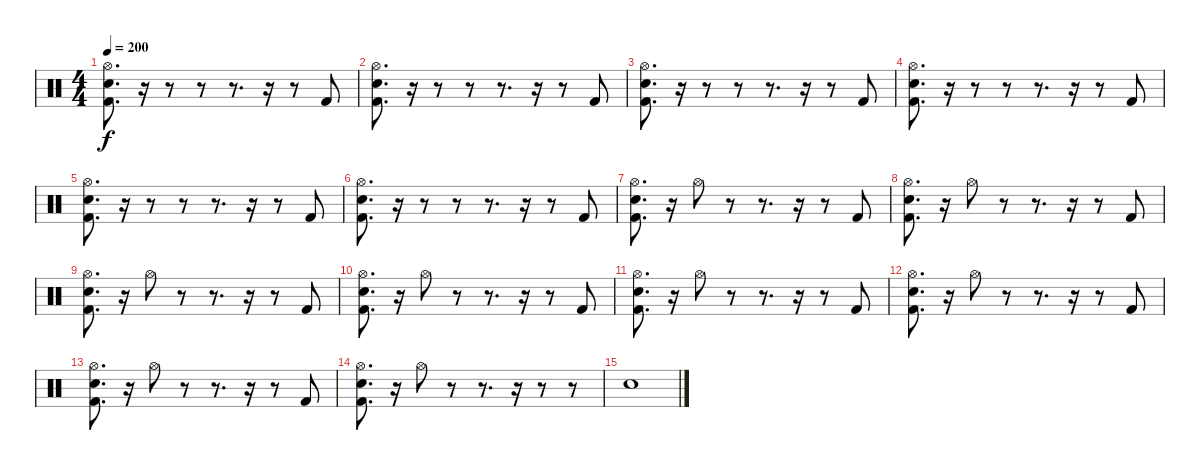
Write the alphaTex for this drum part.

\track "" {instrument percussion}
\staff {score}
\articulation defaults
\ts (4 4)
\tempo 200
\clef neutral
\ks c
("Snare (hit)" "Kick (hit) 2" "Hi-Hat (open)").8{d dy f} r.16 r.8 r.8 r.8{d} r.16 r.8 "Kick (hit) 2".8 |
("Snare (hit)" "Kick (hit) 2" "Hi-Hat (open)").8{d} r.16 r.8 r.8 r.8{d} r.16 r.8 "Kick (hit) 2".8 |
("Snare (hit)" "Kick (hit) 2" "Hi-Hat (open)").8{d} r.16 r.8 r.8 r.8{d} r.16 r.8 "Kick (hit) 2".8 |
("Snare (hit)" "Kick (hit) 2" "Hi-Hat (open)").8{d} r.16 r.8 r.8 r.8{d} r.16 r.8 "Kick (hit) 2".8 |
("Snare (hit)" "Kick (hit) 2" "Hi-Hat (open)").8{d} r.16 r.8 r.8 r.8{d} r.16 r.8 "Kick (hit) 2".8 |
("Snare (hit)" "Kick (hit) 2" "Hi-Hat (open)").8{d} r.16 r.8 r.8 r.8{d} r.16 r.8 "Kick (hit) 2".8 |
("Snare (hit)" "Kick (hit) 2" "Hi-Hat (open)").8{d} r.16 "Hi-Hat (open)".8 r.8 r.8{d} r.16 r.8 "Kick (hit) 2".8 |
("Snare (hit)" "Kick (hit) 2" "Hi-Hat (open)").8{d} r.16 "Hi-Hat (open)".8 r.8 r.8{d} r.16 r.8 "Kick (hit) 2".8 |
("Snare (hit)" "Kick (hit) 2" "Hi-Hat (open)").8{d} r.16 "Hi-Hat (open)".8 r.8 r.8{d} r.16 r.8 "Kick (hit) 2".8 |
("Snare (hit)" "Kick (hit) 2" "Hi-Hat (open)").8{d} r.16 "Hi-Hat (open)".8 r.8 r.8{d} r.16 r.8 "Kick (hit) 2".8 |
("Snare (hit)" "Kick (hit) 2" "Hi-Hat (open)").8{d} r.16 "Hi-Hat (open)".8 r.8 r.8{d} r.16 r.8 "Kick (hit) 2".8 |
("Snare (hit)" "Kick (hit) 2" "Hi-Hat (open)").8{d} r.16 "Hi-Hat (open)".8 r.8 r.8{d} r.16 r.8 "Kick (hit) 2".8 |
("Snare (hit)" "Kick (hit) 2" "Hi-Hat (open)").8{d} r.16 "Hi-Hat (open)".8 r.8 r.8{d} r.16 r.8 "Kick (hit) 2".8 |
("Snare (hit)" "Kick (hit) 2" "Hi-Hat (open)").8{d} r.16 "Hi-Hat (open)".8 r.8 r.8{d} r.16 r.8 r.8 |
"Snare (hit)".1
